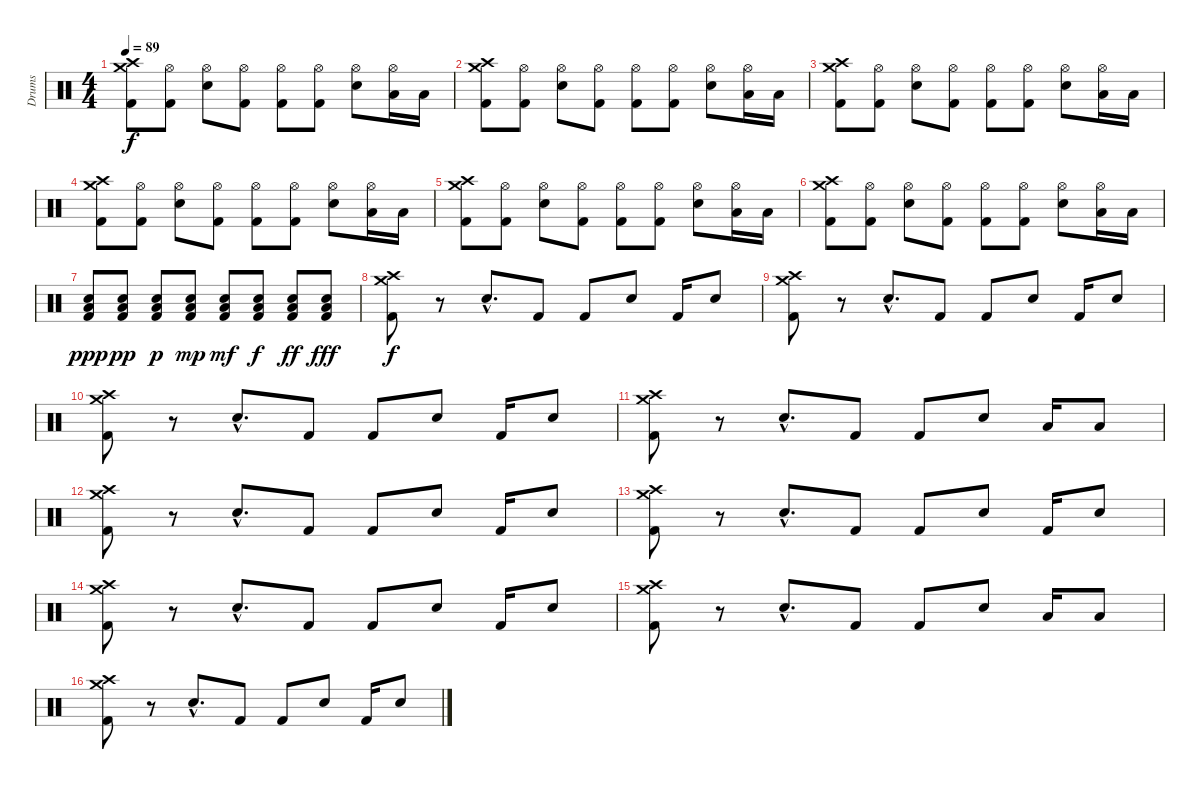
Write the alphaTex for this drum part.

\track ("Drums" "Drums") {instrument percussion}
\staff {score}
\articulation defaults
\ts (4 4)
\tempo 89
\clef neutral
\ks c
("Crash high (hit)" "Crash medium (hit)" "Kick (hit) 2").8{dy f} ("Hi-Hat (open)" "Kick (hit) 2").8 ("Hi-Hat (open)" "Snare (hit) 2").8 ("Hi-Hat (open)" "Kick (hit) 2").8 ("Hi-Hat (open)" "Kick (hit) 2").8 ("Hi-Hat (open)" "Kick (hit) 2").8 ("Hi-Hat (open)" "Snare (hit) 2").8 ("Hi-Hat (open)" "Low Tom (hit)").16 "Low Tom (hit)".16 |
("Crash high (hit)" "Crash medium (hit)" "Kick (hit) 2").8 ("Hi-Hat (open)" "Kick (hit) 2").8 ("Hi-Hat (open)" "Snare (hit) 2").8 ("Hi-Hat (open)" "Kick (hit) 2").8 ("Hi-Hat (open)" "Kick (hit) 2").8 ("Hi-Hat (open)" "Kick (hit) 2").8 ("Hi-Hat (open)" "Snare (hit) 2").8 ("Hi-Hat (open)" "Low Tom (hit)").16 "Low Tom (hit)".16 |
("Crash high (hit)" "Crash medium (hit)" "Kick (hit) 2").8 ("Hi-Hat (open)" "Kick (hit) 2").8 ("Hi-Hat (open)" "Snare (hit) 2").8 ("Hi-Hat (open)" "Kick (hit) 2").8 ("Hi-Hat (open)" "Kick (hit) 2").8 ("Hi-Hat (open)" "Kick (hit) 2").8 ("Hi-Hat (open)" "Snare (hit) 2").8 ("Hi-Hat (open)" "Low Tom (hit)").16 "Low Tom (hit)".16 |
("Crash high (hit)" "Crash medium (hit)" "Kick (hit) 2").8 ("Hi-Hat (open)" "Kick (hit) 2").8 ("Hi-Hat (open)" "Snare (hit) 2").8 ("Hi-Hat (open)" "Kick (hit) 2").8 ("Hi-Hat (open)" "Kick (hit) 2").8 ("Hi-Hat (open)" "Kick (hit) 2").8 ("Hi-Hat (open)" "Snare (hit) 2").8 ("Hi-Hat (open)" "Low Tom (hit)").16 "Low Tom (hit)".16 |
("Crash high (hit)" "Crash medium (hit)" "Kick (hit) 2").8 ("Hi-Hat (open)" "Kick (hit) 2").8 ("Hi-Hat (open)" "Snare (hit) 2").8 ("Hi-Hat (open)" "Kick (hit) 2").8 ("Hi-Hat (open)" "Kick (hit) 2").8 ("Hi-Hat (open)" "Kick (hit) 2").8 ("Hi-Hat (open)" "Snare (hit) 2").8 ("Hi-Hat (open)" "Low Tom (hit)").16 "Low Tom (hit)".16 |
("Crash high (hit)" "Crash medium (hit)" "Kick (hit) 2").8 ("Hi-Hat (open)" "Kick (hit) 2").8 ("Hi-Hat (open)" "Snare (hit) 2").8 ("Hi-Hat (open)" "Kick (hit) 2").8 ("Hi-Hat (open)" "Kick (hit) 2").8 ("Hi-Hat (open)" "Kick (hit) 2").8 ("Hi-Hat (open)" "Snare (hit) 2").8 ("Hi-Hat (open)" "Low Tom (hit)").16 "Low Tom (hit)".16 |
("Kick (hit) 2" "Snare (hit) 2" "Low Floor Tom (hit)").8{dy ppp} ("Kick (hit) 2" "Snare (hit) 2" "Low Floor Tom (hit)").8{dy pp} ("Kick (hit) 2" "Snare (hit) 2" "Low Floor Tom (hit)").8{dy p} ("Kick (hit) 2" "Snare (hit) 2" "Low Floor Tom (hit)").8{dy mp} ("Kick (hit) 2" "Snare (hit) 2" "Low Floor Tom (hit)").8{dy mf} ("Kick (hit) 2" "Snare (hit) 2" "Low Floor Tom (hit)").8{dy f} ("Kick (hit) 2" "Snare (hit) 2" "Low Floor Tom (hit)").8{dy ff} ("Kick (hit) 2" "Snare (hit) 2" "Low Floor Tom (hit)").8{dy fff} |
("Crash high (hit)" "Crash medium (hit)" "Kick (hit) 2").8{dy f} r.8 "Snare (hit) 2"{hac}.8{d} "Kick (hit) 2".8 "Kick (hit) 2".8 "Snare (hit) 2".8 "Kick (hit) 2".16 "Snare (hit) 2".8 |
("Crash high (hit)" "Crash medium (hit)" "Kick (hit) 2").8 r.8 "Snare (hit) 2"{hac}.8{d} "Kick (hit) 2".8 "Kick (hit) 2".8 "Snare (hit) 2".8 "Kick (hit) 2".16 "Snare (hit) 2".8 |
("Crash high (hit)" "Crash medium (hit)" "Kick (hit) 2").8 r.8 "Snare (hit) 2"{hac}.8{d} "Kick (hit) 2".8 "Kick (hit) 2".8 "Snare (hit) 2".8 "Kick (hit) 2".16 "Snare (hit) 2".8 |
("Crash high (hit)" "Crash medium (hit)" "Kick (hit) 2").8 r.8 "Snare (hit) 2"{hac}.8{d} "Kick (hit) 2".8 "Kick (hit) 2".8 "Snare (hit) 2".8 "Low Tom (hit)".16 "Low Tom (hit)".8 |
("Crash high (hit)" "Crash medium (hit)" "Kick (hit) 2").8 r.8 "Snare (hit) 2"{hac}.8{d} "Kick (hit) 2".8 "Kick (hit) 2".8 "Snare (hit) 2".8 "Kick (hit) 2".16 "Snare (hit) 2".8 |
("Crash high (hit)" "Crash medium (hit)" "Kick (hit) 2").8 r.8 "Snare (hit) 2"{hac}.8{d} "Kick (hit) 2".8 "Kick (hit) 2".8 "Snare (hit) 2".8 "Kick (hit) 2".16 "Snare (hit) 2".8 |
("Crash high (hit)" "Crash medium (hit)" "Kick (hit) 2").8 r.8 "Snare (hit) 2"{hac}.8{d} "Kick (hit) 2".8 "Kick (hit) 2".8 "Snare (hit) 2".8 "Kick (hit) 2".16 "Snare (hit) 2".8 |
("Crash high (hit)" "Crash medium (hit)" "Kick (hit) 2").8 r.8 "Snare (hit) 2"{hac}.8{d} "Kick (hit) 2".8 "Kick (hit) 2".8 "Snare (hit) 2".8 "Low Tom (hit)".16 "Low Tom (hit)".8 |
("Crash high (hit)" "Crash medium (hit)" "Kick (hit) 2").8 r.8 "Snare (hit) 2"{hac}.8{d} "Kick (hit) 2".8 "Kick (hit) 2".8 "Snare (hit) 2".8 "Kick (hit) 2".16 "Snare (hit) 2".8
